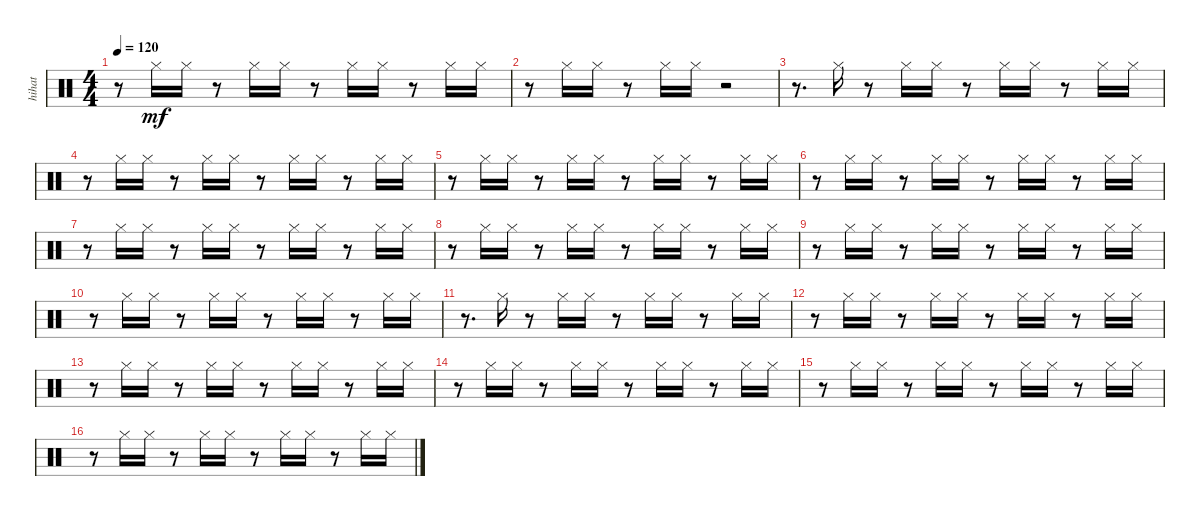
\track ("hihat" "hihat") {instrument percussion}
\staff {score}
\articulation defaults
\ts (4 4)
\tempo 120
\clef neutral
\ks c
r.8{dy mf} "Hi-Hat (closed)".16 "Hi-Hat (closed)".16 r.8 "Hi-Hat (closed)".16 "Hi-Hat (closed)".16 r.8 "Hi-Hat (closed)".16 "Hi-Hat (closed)".16 r.8 "Hi-Hat (closed)".16 "Hi-Hat (closed)".16 |
r.8 "Hi-Hat (closed)".16 "Hi-Hat (closed)".16 r.8 "Hi-Hat (closed)".16 "Hi-Hat (closed)".16 r.2 |
r.8{d} "Hi-Hat (closed)".16 r.8 "Hi-Hat (closed)".16 "Hi-Hat (closed)".16 r.8 "Hi-Hat (closed)".16 "Hi-Hat (closed)".16 r.8 "Hi-Hat (closed)".16 "Hi-Hat (closed)".16 |
r.8 "Hi-Hat (closed)".16 "Hi-Hat (closed)".16 r.8 "Hi-Hat (closed)".16 "Hi-Hat (closed)".16 r.8 "Hi-Hat (closed)".16 "Hi-Hat (closed)".16 r.8 "Hi-Hat (closed)".16 "Hi-Hat (closed)".16 |
r.8 "Hi-Hat (closed)".16 "Hi-Hat (closed)".16 r.8 "Hi-Hat (closed)".16 "Hi-Hat (closed)".16 r.8 "Hi-Hat (closed)".16 "Hi-Hat (closed)".16 r.8 "Hi-Hat (closed)".16 "Hi-Hat (closed)".16 |
r.8 "Hi-Hat (closed)".16 "Hi-Hat (closed)".16 r.8 "Hi-Hat (closed)".16 "Hi-Hat (closed)".16 r.8 "Hi-Hat (closed)".16 "Hi-Hat (closed)".16 r.8 "Hi-Hat (closed)".16 "Hi-Hat (closed)".16 |
r.8 "Hi-Hat (closed)".16 "Hi-Hat (closed)".16 r.8 "Hi-Hat (closed)".16 "Hi-Hat (closed)".16 r.8 "Hi-Hat (closed)".16 "Hi-Hat (closed)".16 r.8 "Hi-Hat (closed)".16 "Hi-Hat (closed)".16 |
r.8 "Hi-Hat (closed)".16 "Hi-Hat (closed)".16 r.8 "Hi-Hat (closed)".16 "Hi-Hat (closed)".16 r.8 "Hi-Hat (closed)".16 "Hi-Hat (closed)".16 r.8 "Hi-Hat (closed)".16 "Hi-Hat (closed)".16 |
r.8 "Hi-Hat (closed)".16 "Hi-Hat (closed)".16 r.8 "Hi-Hat (closed)".16 "Hi-Hat (closed)".16 r.8 "Hi-Hat (closed)".16 "Hi-Hat (closed)".16 r.8 "Hi-Hat (closed)".16 "Hi-Hat (closed)".16 |
r.8 "Hi-Hat (closed)".16 "Hi-Hat (closed)".16 r.8 "Hi-Hat (closed)".16 "Hi-Hat (closed)".16 r.8 "Hi-Hat (closed)".16 "Hi-Hat (closed)".16 r.8 "Hi-Hat (closed)".16 "Hi-Hat (closed)".16 |
r.8{d} "Hi-Hat (closed)".16 r.8 "Hi-Hat (closed)".16 "Hi-Hat (closed)".16 r.8 "Hi-Hat (closed)".16 "Hi-Hat (closed)".16 r.8 "Hi-Hat (closed)".16 "Hi-Hat (closed)".16 |
r.8 "Hi-Hat (closed)".16 "Hi-Hat (closed)".16 r.8 "Hi-Hat (closed)".16 "Hi-Hat (closed)".16 r.8 "Hi-Hat (closed)".16 "Hi-Hat (closed)".16 r.8 "Hi-Hat (closed)".16 "Hi-Hat (closed)".16 |
r.8 "Hi-Hat (closed)".16 "Hi-Hat (closed)".16 r.8 "Hi-Hat (closed)".16 "Hi-Hat (closed)".16 r.8 "Hi-Hat (closed)".16 "Hi-Hat (closed)".16 r.8 "Hi-Hat (closed)".16 "Hi-Hat (closed)".16 |
r.8 "Hi-Hat (closed)".16 "Hi-Hat (closed)".16 r.8 "Hi-Hat (closed)".16 "Hi-Hat (closed)".16 r.8 "Hi-Hat (closed)".16 "Hi-Hat (closed)".16 r.8 "Hi-Hat (closed)".16 "Hi-Hat (closed)".16 |
r.8 "Hi-Hat (closed)".16 "Hi-Hat (closed)".16 r.8 "Hi-Hat (closed)".16 "Hi-Hat (closed)".16 r.8 "Hi-Hat (closed)".16 "Hi-Hat (closed)".16 r.8 "Hi-Hat (closed)".16 "Hi-Hat (closed)".16 |
r.8 "Hi-Hat (closed)".16 "Hi-Hat (closed)".16 r.8 "Hi-Hat (closed)".16 "Hi-Hat (closed)".16 r.8 "Hi-Hat (closed)".16 "Hi-Hat (closed)".16 r.8 "Hi-Hat (closed)".16 "Hi-Hat (closed)".16
